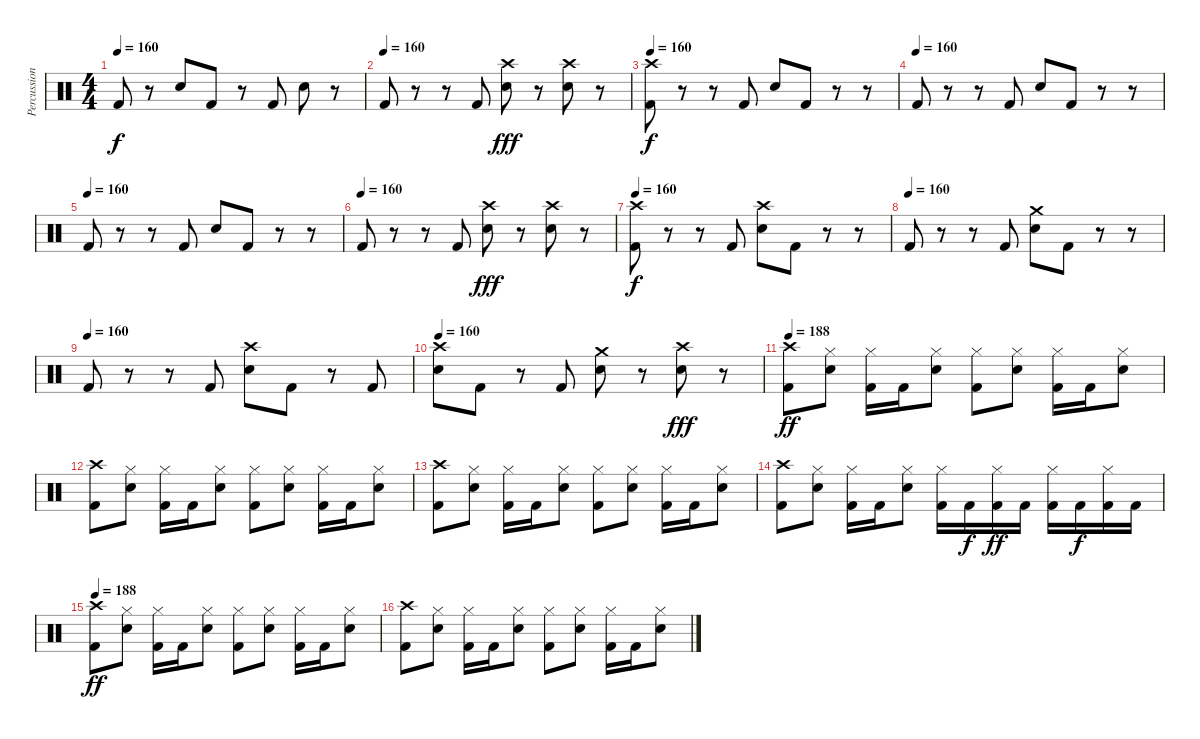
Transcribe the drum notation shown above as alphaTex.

\track ("Percussion" "Percussion") {instrument percussion}
\staff {score}
\articulation defaults
\ts (4 4)
\tempo 160
\clef neutral
\ks c "Kick (hit) 2".8{dy f}
r.8 "Snare (hit) 2".8 "Kick (hit) 2".8 r.8 "Kick (hit) 2".8 "Snare (hit) 2".8 r.8 |
\tempo (160)
"Kick (hit) 2".8 r.8 r.8 "Kick (hit) 2".8 ("Crash high (hit)" "Snare (hit) 2").8{dy fff} r.8 ("Crash high (hit)" "Snare (hit) 2").8 r.8 |
\tempo 160
("Crash high (hit)" "Kick (hit) 2").8{dy f} r.8 r.8 "Kick (hit) 2".8 "Snare (hit) 2".8 "Kick (hit) 2".8 r.8 r.8 |
\tempo (160)
"Kick (hit) 2".8 r.8 r.8 "Kick (hit) 2".8 "Snare (hit) 2".8 "Kick (hit) 2".8 r.8 r.8 |
\tempo (160)
"Kick (hit) 2".8 r.8 r.8 "Kick (hit) 2".8 "Snare (hit) 2".8 "Kick (hit) 2".8 r.8 r.8 |
\tempo (160)
"Kick (hit) 2".8 r.8 r.8 "Kick (hit) 2".8 ("Crash high (hit)" "Snare (hit) 2").8{dy fff} r.8 ("Crash high (hit)" "Snare (hit) 2").8 r.8 |
\tempo 160
("Crash high (hit)" "Kick (hit) 2").8{dy f} r.8 r.8 "Kick (hit) 2".8 ("Crash high (hit)" "Snare (hit) 2").8 "Kick (hit) 2".8 r.8 r.8 |
\tempo (160)
"Kick (hit) 2".8 r.8 r.8 "Kick (hit) 2".8 ("Crash medium (hit)" "Snare (hit) 2").8 "Kick (hit) 2".8 r.8 r.8 |
\tempo (160)
"Kick (hit) 2".8 r.8 r.8 "Kick (hit) 2".8 ("Crash high (hit)" "Snare (hit) 2").8 "Kick (hit) 2".8 r.8 "Kick (hit) 2".8 |
\tempo 160
("Crash high (hit)" "Snare (hit) 2").8 "Kick (hit) 2".8 r.8 "Kick (hit) 2".8 ("Crash medium (hit)" "Snare (hit) 2").8 r.8 ("Crash high (hit)" "Snare (hit) 2").8{dy fff} r.8 |
\tempo 188
("Crash high (hit)" "Kick (hit) 2").8{dy ff} ("Hi-Hat (closed)" "Snare (hit) 2").8 ("Hi-Hat (closed)" "Kick (hit) 2").16 "Kick (hit) 2".16 ("Hi-Hat (closed)" "Snare (hit) 2").8 ("Hi-Hat (closed)" "Kick (hit) 2").8 ("Hi-Hat (closed)" "Snare (hit) 2").8 ("Hi-Hat (closed)" "Kick (hit) 2").16 "Kick (hit) 2".16 ("Hi-Hat (closed)" "Snare (hit) 2").8 |
("Crash high (hit)" "Kick (hit) 2").8 ("Hi-Hat (closed)" "Snare (hit) 2").8 ("Hi-Hat (closed)" "Kick (hit) 2").16 "Kick (hit) 2".16 ("Hi-Hat (closed)" "Snare (hit) 2").8 ("Hi-Hat (closed)" "Kick (hit) 2").8 ("Hi-Hat (closed)" "Snare (hit) 2").8 ("Hi-Hat (closed)" "Kick (hit) 2").16 "Kick (hit) 2".16 ("Hi-Hat (closed)" "Snare (hit) 2").8 |
("Crash high (hit)" "Kick (hit) 2").8 ("Hi-Hat (closed)" "Snare (hit) 2").8 ("Hi-Hat (closed)" "Kick (hit) 2").16 "Kick (hit) 2".16 ("Hi-Hat (closed)" "Snare (hit) 2").8 ("Hi-Hat (closed)" "Kick (hit) 2").8 ("Hi-Hat (closed)" "Snare (hit) 2").8 ("Hi-Hat (closed)" "Kick (hit) 2").16 "Kick (hit) 2".16 ("Hi-Hat (closed)" "Snare (hit) 2").8 |
("Crash high (hit)" "Kick (hit) 2").8 ("Hi-Hat (closed)" "Snare (hit) 2").8 ("Hi-Hat (closed)" "Kick (hit) 2").16 "Kick (hit) 2".16 ("Hi-Hat (closed)" "Snare (hit) 2").8 ("Hi-Hat (closed)" "Kick (hit) 2").16 "Kick (hit) 2".16{dy f} ("Hi-Hat (closed)" "Kick (hit) 2").16{dy ff} "Kick (hit) 2".16 ("Hi-Hat (closed)" "Kick (hit) 2").16 "Kick (hit) 2".16{dy f} ("Hi-Hat (closed)" "Kick (hit) 2").16 "Kick (hit) 2".16 |
\tempo 188
("Crash high (hit)" "Kick (hit) 2").8{dy ff} ("Hi-Hat (closed)" "Snare (hit) 2").8 ("Hi-Hat (closed)" "Kick (hit) 2").16 "Kick (hit) 2".16 ("Hi-Hat (closed)" "Snare (hit) 2").8 ("Hi-Hat (closed)" "Kick (hit) 2").8 ("Hi-Hat (closed)" "Snare (hit) 2").8 ("Hi-Hat (closed)" "Kick (hit) 2").16 "Kick (hit) 2".16 ("Hi-Hat (closed)" "Snare (hit) 2").8 |
("Crash high (hit)" "Kick (hit) 2").8 ("Hi-Hat (closed)" "Snare (hit) 2").8 ("Hi-Hat (closed)" "Kick (hit) 2").16 "Kick (hit) 2".16 ("Hi-Hat (closed)" "Snare (hit) 2").8 ("Hi-Hat (closed)" "Kick (hit) 2").8 ("Hi-Hat (closed)" "Snare (hit) 2").8 ("Hi-Hat (closed)" "Kick (hit) 2").16 "Kick (hit) 2".16 ("Hi-Hat (closed)" "Snare (hit) 2").8
